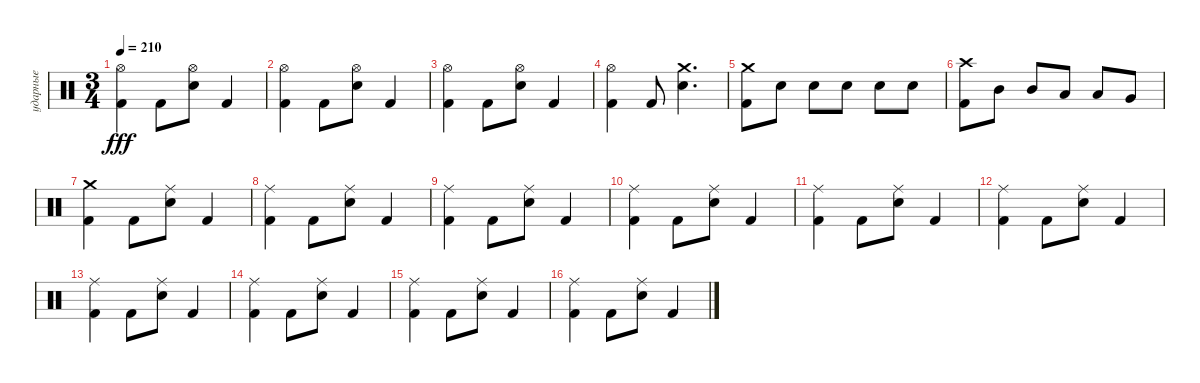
\track ("ударные" "ударные") {instrument percussion}
\staff {score}
\articulation defaults
\ts (3 4)
\tempo 210
\clef neutral
\ks c
("Hi-Hat (open)" "Kick (hit) 2").4{dy fff} "Kick (hit) 2".8 ("Hi-Hat (open)" "Snare (hit) 2").8 "Kick (hit) 2".4 |
("Hi-Hat (open)" "Kick (hit) 2").4 "Kick (hit) 2".8 ("Hi-Hat (open)" "Snare (hit) 2").8 "Kick (hit) 2".4 |
("Hi-Hat (open)" "Kick (hit) 2").4 "Kick (hit) 2".8 ("Hi-Hat (open)" "Snare (hit) 2").8 "Kick (hit) 2".4 |
("Hi-Hat (open)" "Kick (hit) 2").4 "Kick (hit) 2".8 ("Crash medium (hit)" "Snare (hit) 2").4{d} |
("Crash medium (hit)" "Kick (hit) 2").8 "Snare (hit) 2".8 "Snare (hit) 2".8 "Snare (hit) 2".8 "Snare (hit) 2".8 "Snare (hit) 2".8 |
("Crash high (hit)" "Kick (hit) 2").8 "Mid Tom (hit)".8 "Mid Tom (hit)".8 "Low Tom (hit)".8 "Low Tom (hit)".8 "Very Low Tom (hit)".8 |
("Crash medium (hit)" "Kick (hit) 2").4 "Kick (hit) 2".8 ("Ride (middle)" "Snare (hit) 2").8 "Kick (hit) 2".4 |
("Ride (middle)" "Kick (hit) 2").4 "Kick (hit) 2".8 ("Ride (middle)" "Snare (hit) 2").8 "Kick (hit) 2".4 |
("Ride (middle)" "Kick (hit) 2").4 "Kick (hit) 2".8 ("Ride (middle)" "Snare (hit) 2").8 "Kick (hit) 2".4 |
("Ride (middle)" "Kick (hit) 2").4 "Kick (hit) 2".8 ("Ride (middle)" "Snare (hit) 2").8 "Kick (hit) 2".4 |
("Ride (middle)" "Kick (hit) 2").4 "Kick (hit) 2".8 ("Ride (middle)" "Snare (hit) 2").8 "Kick (hit) 2".4 |
("Ride (middle)" "Kick (hit) 2").4 "Kick (hit) 2".8 ("Ride (middle)" "Snare (hit) 2").8 "Kick (hit) 2".4 |
("Ride (middle)" "Kick (hit) 2").4 "Kick (hit) 2".8 ("Ride (middle)" "Snare (hit) 2").8 "Kick (hit) 2".4 |
("Ride (middle)" "Kick (hit) 2").4 "Kick (hit) 2".8 ("Ride (middle)" "Snare (hit) 2").8 "Kick (hit) 2".4 |
("Ride (middle)" "Kick (hit) 2").4 "Kick (hit) 2".8 ("Ride (middle)" "Snare (hit) 2").8 "Kick (hit) 2".4 |
("Ride (middle)" "Kick (hit) 2").4 "Kick (hit) 2".8 ("Ride (middle)" "Snare (hit) 2").8 "Kick (hit) 2".4
